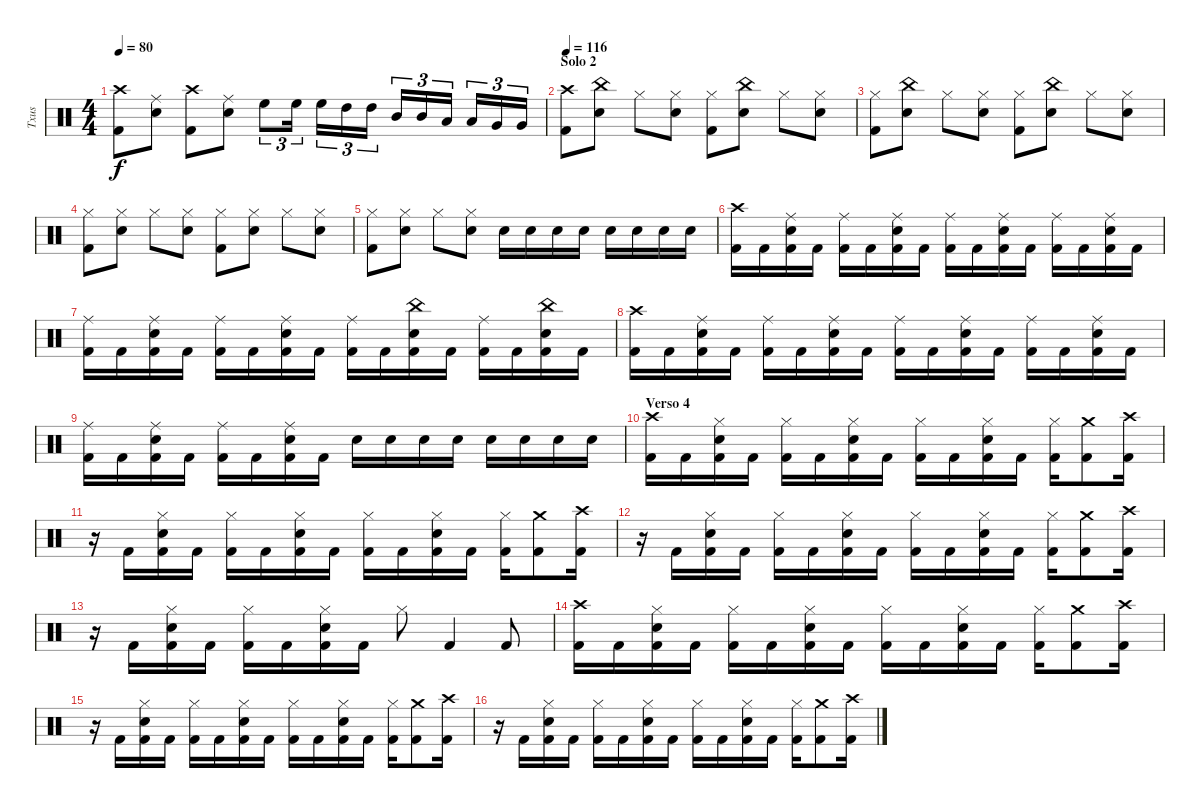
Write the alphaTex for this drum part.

\track ("Txus" "Txus") {instrument percussion}
\staff {score}
\articulation defaults
\ts (4 4)
\tempo 80
\clef neutral
\ks c
("Kick (hit) 2" "Crash high (hit)").8{dy f} ("Electric Snare (hit)" "Ride (middle)").8 ("Kick (hit) 2" "Crash high (hit)").8 ("Electric Snare (hit)" "Ride (middle)").8 "High Floor Tom (hit)".8{tu (3 2)} "High Floor Tom (hit)".16{tu (3 2)} "High Floor Tom (hit)".16{tu (3 2)} "High Tom (hit)".16{tu (3 2)} "High Tom (hit)".16{tu (3 2)} "Mid Tom (hit)".16{tu (3 2)} "Mid Tom (hit)".16{tu (3 2)} "Low Tom (hit)".16{tu (3 2)} "Low Tom (hit)".16{tu (3 2)} "Very Low Tom (hit)".16{tu (3 2)} "Very Low Tom (hit)".16{tu (3 2)} |
\section ("" "Solo 2")
\tempo 116
("Kick (hit) 2" "Crash high (hit)").8{volume 16} ("Electric Snare (hit)" "China (hit)").8 "Hi-Hat (closed)".8 ("Electric Snare (hit)" "Hi-Hat (closed)").8 ("Kick (hit) 2" "Hi-Hat (closed)").8 ("Electric Snare (hit)" "China (hit)").8 "Hi-Hat (closed)".8 ("Electric Snare (hit)" "Hi-Hat (closed)").8 |
("Kick (hit) 2" "Hi-Hat (closed)").8 ("Electric Snare (hit)" "China (hit)").8 "Hi-Hat (closed)".8 ("Electric Snare (hit)" "Hi-Hat (closed)").8 ("Kick (hit) 2" "Hi-Hat (closed)").8 ("Electric Snare (hit)" "China (hit)").8 "Hi-Hat (closed)".8 ("Electric Snare (hit)" "Hi-Hat (closed)").8 |
("Kick (hit) 2" "Hi-Hat (closed)").8 ("Electric Snare (hit)" "Hi-Hat (closed)").8 "Hi-Hat (closed)".8 ("Electric Snare (hit)" "Hi-Hat (closed)").8 ("Kick (hit) 2" "Hi-Hat (closed)").8 ("Electric Snare (hit)" "Hi-Hat (closed)").8 "Hi-Hat (closed)".8 ("Electric Snare (hit)" "Hi-Hat (closed)").8 |
("Kick (hit) 2" "Hi-Hat (closed)").8 ("Electric Snare (hit)" "Hi-Hat (closed)").8 "Hi-Hat (closed)".8 ("Electric Snare (hit)" "Hi-Hat (closed)").8 "Electric Snare (hit)".16 "Electric Snare (hit)".16 "Electric Snare (hit)".16 "Electric Snare (hit)".16 "Electric Snare (hit)".16 "Electric Snare (hit)".16 "Electric Snare (hit)".16 "Electric Snare (hit)".16 |
("Kick (hit) 2" "Crash high (hit)").16 "Kick (hit) 2".16 ("Kick (hit) 2" "Electric Snare (hit)" "Ride (middle)").16 "Kick (hit) 2".16 ("Kick (hit) 2" "Ride (middle)").16 "Kick (hit) 2".16 ("Kick (hit) 2" "Electric Snare (hit)" "Ride (middle)").16 "Kick (hit) 2".16 ("Kick (hit) 2" "Ride (middle)").16 "Kick (hit) 2".16 ("Kick (hit) 2" "Electric Snare (hit)" "Ride (middle)").16 "Kick (hit) 2".16 ("Kick (hit) 2" "Ride (middle)").16 "Kick (hit) 2".16 ("Kick (hit) 2" "Electric Snare (hit)" "Ride (middle)").16 "Kick (hit) 2".16 |
("Kick (hit) 2" "Ride (middle)").16 "Kick (hit) 2".16 ("Kick (hit) 2" "Electric Snare (hit)" "Ride (middle)").16 "Kick (hit) 2".16 ("Kick (hit) 2" "Ride (middle)").16 "Kick (hit) 2".16 ("Kick (hit) 2" "Electric Snare (hit)" "Ride (middle)").16 "Kick (hit) 2".16 ("Kick (hit) 2" "Ride (middle)").16 "Kick (hit) 2".16 ("Kick (hit) 2" "Electric Snare (hit)" "China (hit)").16 "Kick (hit) 2".16 ("Kick (hit) 2" "Ride (middle)").16 "Kick (hit) 2".16 ("Kick (hit) 2" "Electric Snare (hit)" "China (hit)").16 "Kick (hit) 2".16 |
("Kick (hit) 2" "Crash high (hit)").16 "Kick (hit) 2".16 ("Kick (hit) 2" "Electric Snare (hit)" "Ride (middle)").16 "Kick (hit) 2".16 ("Kick (hit) 2" "Ride (middle)").16 "Kick (hit) 2".16 ("Kick (hit) 2" "Electric Snare (hit)" "Ride (middle)").16 "Kick (hit) 2".16 ("Kick (hit) 2" "Ride (middle)").16 "Kick (hit) 2".16 ("Kick (hit) 2" "Electric Snare (hit)" "Ride (middle)").16 "Kick (hit) 2".16 ("Kick (hit) 2" "Ride (middle)").16 "Kick (hit) 2".16 ("Kick (hit) 2" "Electric Snare (hit)" "Ride (middle)").16 "Kick (hit) 2".16 |
("Kick (hit) 2" "Ride (middle)").16 "Kick (hit) 2".16 ("Kick (hit) 2" "Electric Snare (hit)" "Ride (middle)").16 "Kick (hit) 2".16 ("Kick (hit) 2" "Ride (middle)").16 "Kick (hit) 2".16 ("Kick (hit) 2" "Electric Snare (hit)" "Ride (middle)").16 "Kick (hit) 2".16 "Electric Snare (hit)".16 "Electric Snare (hit)".16 "Electric Snare (hit)".16 "Electric Snare (hit)".16 "Electric Snare (hit)".16 "Electric Snare (hit)".16 "Electric Snare (hit)".16 "Electric Snare (hit)".16 |
\section ("" "Verso 4")
("Kick (hit) 2" "Crash high (hit)").16 "Kick (hit) 2".16 ("Kick (hit) 2" "Electric Snare (hit)" "Hi-Hat (closed)").16 "Kick (hit) 2".16 ("Kick (hit) 2" "Hi-Hat (closed)").16 "Kick (hit) 2".16 ("Kick (hit) 2" "Electric Snare (hit)" "Hi-Hat (closed)").16 "Kick (hit) 2".16 ("Kick (hit) 2" "Hi-Hat (closed)").16 "Kick (hit) 2".16 ("Kick (hit) 2" "Electric Snare (hit)" "Hi-Hat (closed)").16 "Kick (hit) 2".16 ("Kick (hit) 2" "Hi-Hat (closed)").16 ("Kick (hit) 2" "Crash medium (hit)").8 ("Kick (hit) 2" "Crash high (hit)").16 |
r.16 "Kick (hit) 2".16 ("Kick (hit) 2" "Electric Snare (hit)" "Hi-Hat (closed)").16 "Kick (hit) 2".16 ("Kick (hit) 2" "Hi-Hat (closed)").16 "Kick (hit) 2".16 ("Kick (hit) 2" "Electric Snare (hit)" "Hi-Hat (closed)").16 "Kick (hit) 2".16 ("Kick (hit) 2" "Hi-Hat (closed)").16 "Kick (hit) 2".16 ("Kick (hit) 2" "Electric Snare (hit)" "Hi-Hat (closed)").16 "Kick (hit) 2".16 ("Kick (hit) 2" "Hi-Hat (closed)").16 ("Kick (hit) 2" "Crash medium (hit)").8 ("Kick (hit) 2" "Crash high (hit)").16 |
r.16 "Kick (hit) 2".16 ("Kick (hit) 2" "Electric Snare (hit)" "Hi-Hat (closed)").16 "Kick (hit) 2".16 ("Kick (hit) 2" "Hi-Hat (closed)").16 "Kick (hit) 2".16 ("Kick (hit) 2" "Electric Snare (hit)" "Hi-Hat (closed)").16 "Kick (hit) 2".16 ("Kick (hit) 2" "Hi-Hat (closed)").16 "Kick (hit) 2".16 ("Kick (hit) 2" "Electric Snare (hit)" "Hi-Hat (closed)").16 "Kick (hit) 2".16 ("Kick (hit) 2" "Hi-Hat (closed)").16 ("Kick (hit) 2" "Crash medium (hit)").8 ("Kick (hit) 2" "Crash high (hit)").16 |
r.16 "Kick (hit) 2".16 ("Kick (hit) 2" "Electric Snare (hit)" "Hi-Hat (closed)").16 "Kick (hit) 2".16 ("Kick (hit) 2" "Hi-Hat (closed)").16 "Kick (hit) 2".16 ("Kick (hit) 2" "Electric Snare (hit)" "Hi-Hat (closed)").16 "Kick (hit) 2".16 "Hi-Hat (closed)".8 "Kick (hit) 2".4 "Kick (hit) 2".8 |
("Kick (hit) 2" "Crash high (hit)").16 "Kick (hit) 2".16 ("Kick (hit) 2" "Electric Snare (hit)" "Hi-Hat (closed)").16 "Kick (hit) 2".16 ("Kick (hit) 2" "Hi-Hat (closed)").16 "Kick (hit) 2".16 ("Kick (hit) 2" "Electric Snare (hit)" "Hi-Hat (closed)").16 "Kick (hit) 2".16 ("Kick (hit) 2" "Hi-Hat (closed)").16 "Kick (hit) 2".16 ("Kick (hit) 2" "Electric Snare (hit)" "Hi-Hat (closed)").16 "Kick (hit) 2".16 ("Kick (hit) 2" "Hi-Hat (closed)").16 ("Kick (hit) 2" "Crash medium (hit)").8 ("Kick (hit) 2" "Crash high (hit)").16 |
r.16 "Kick (hit) 2".16 ("Kick (hit) 2" "Electric Snare (hit)" "Hi-Hat (closed)").16 "Kick (hit) 2".16 ("Kick (hit) 2" "Hi-Hat (closed)").16 "Kick (hit) 2".16 ("Kick (hit) 2" "Electric Snare (hit)" "Hi-Hat (closed)").16 "Kick (hit) 2".16 ("Kick (hit) 2" "Hi-Hat (closed)").16 "Kick (hit) 2".16 ("Kick (hit) 2" "Electric Snare (hit)" "Hi-Hat (closed)").16 "Kick (hit) 2".16 ("Kick (hit) 2" "Hi-Hat (closed)").16 ("Kick (hit) 2" "Crash medium (hit)").8 ("Kick (hit) 2" "Crash high (hit)").16 |
r.16 "Kick (hit) 2".16 ("Kick (hit) 2" "Electric Snare (hit)" "Hi-Hat (closed)").16 "Kick (hit) 2".16 ("Kick (hit) 2" "Hi-Hat (closed)").16 "Kick (hit) 2".16 ("Kick (hit) 2" "Electric Snare (hit)" "Hi-Hat (closed)").16 "Kick (hit) 2".16 ("Kick (hit) 2" "Hi-Hat (closed)").16 "Kick (hit) 2".16 ("Kick (hit) 2" "Electric Snare (hit)" "Hi-Hat (closed)").16 "Kick (hit) 2".16 ("Kick (hit) 2" "Hi-Hat (closed)").16 ("Kick (hit) 2" "Crash medium (hit)").8 ("Kick (hit) 2" "Crash high (hit)").16
